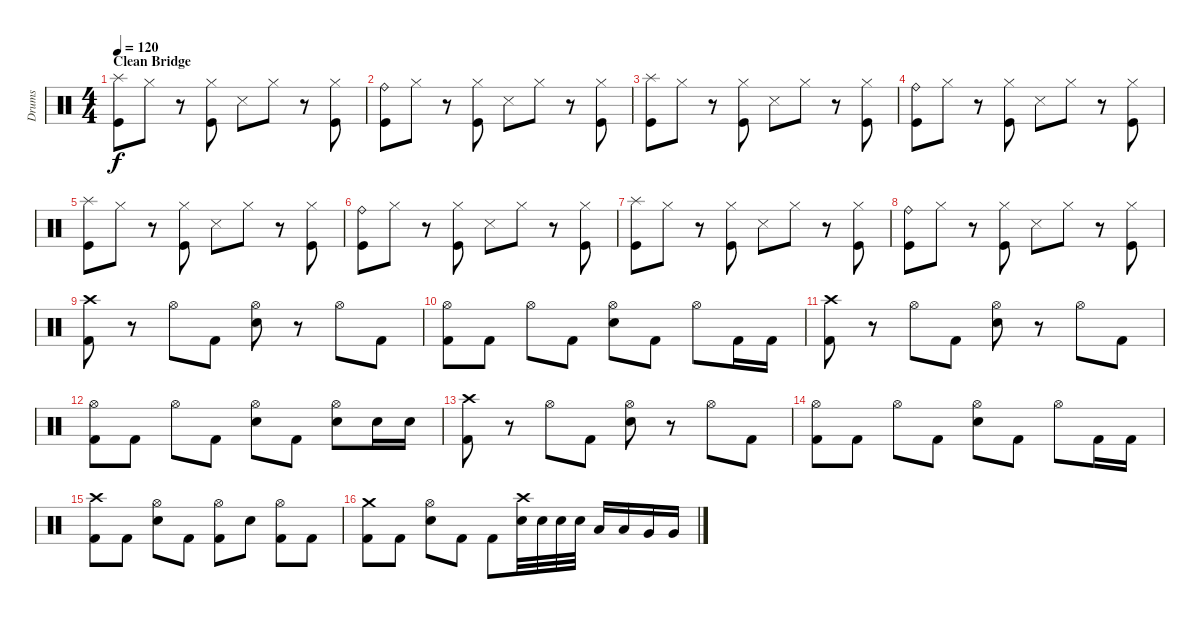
\track ("Drums" "Drums") {instrument percussion}
\staff {score}
\articulation defaults
\ts (4 4)
\section ("" "Clean Bridge")
\tempo 120
\clef neutral
\ks c
("Splash (hit)" "Kick (hit)").8{dy f} "Hi-Hat (closed)".8 r.8 ("Hi-Hat (closed)" "Kick (hit)").8 "Snare (side stick) 3".8 "Hi-Hat (closed)".8 r.8 ("Hi-Hat (closed)" "Kick (hit)").8 |
("Ride (bell)" "Kick (hit)").8 "Hi-Hat (closed)".8 r.8 ("Hi-Hat (closed)" "Kick (hit)").8 "Snare (side stick) 3".8 "Hi-Hat (closed)".8 r.8 ("Hi-Hat (closed)" "Kick (hit)").8 |
("Splash (hit)" "Kick (hit)").8 "Hi-Hat (closed)".8 r.8 ("Hi-Hat (closed)" "Kick (hit)").8 "Snare (side stick) 3".8 "Hi-Hat (closed)".8 r.8 ("Hi-Hat (closed)" "Kick (hit)").8 |
("Ride (bell)" "Kick (hit)").8 "Hi-Hat (closed)".8 r.8 ("Hi-Hat (closed)" "Kick (hit)").8 "Snare (side stick) 3".8 "Hi-Hat (closed)".8 r.8 ("Hi-Hat (closed)" "Kick (hit)").8 |
("Splash (hit)" "Kick (hit)").8 "Hi-Hat (closed)".8 r.8 ("Hi-Hat (closed)" "Kick (hit)").8 "Snare (side stick) 3".8 "Hi-Hat (closed)".8 r.8 ("Hi-Hat (closed)" "Kick (hit)").8 |
("Ride (bell)" "Kick (hit)").8 "Hi-Hat (closed)".8 r.8 ("Hi-Hat (closed)" "Kick (hit)").8 "Snare (side stick) 3".8 "Hi-Hat (closed)".8 r.8 ("Hi-Hat (closed)" "Kick (hit)").8 |
("Splash (hit)" "Kick (hit)").8 "Hi-Hat (closed)".8 r.8 ("Hi-Hat (closed)" "Kick (hit)").8 "Snare (side stick) 3".8 "Hi-Hat (closed)".8 r.8 ("Hi-Hat (closed)" "Kick (hit)").8 |
("Ride (bell)" "Kick (hit)").8 "Hi-Hat (closed)".8 r.8 ("Hi-Hat (closed)" "Kick (hit)").8 "Snare (side stick) 3".8 "Hi-Hat (closed)".8 r.8 ("Hi-Hat (closed)" "Kick (hit)").8 |
("Crash high (hit)" "Kick (hit) 2").8 r.8 "Hi-Hat (open)".8 "Kick (hit) 2".8 ("Hi-Hat (open)" "Snare (hit) 2").8 r.8 "Hi-Hat (open)".8 "Kick (hit) 2".8 |
("Hi-Hat (open)" "Kick (hit) 2").8 "Kick (hit) 2".8 "Hi-Hat (open)".8 "Kick (hit) 2".8 ("Hi-Hat (open)" "Snare (hit) 2").8 "Kick (hit) 2".8 "Hi-Hat (open)".8 "Kick (hit) 2".16 "Kick (hit) 2".16 |
("Crash high (hit)" "Kick (hit) 2").8 r.8 "Hi-Hat (open)".8 "Kick (hit) 2".8 ("Hi-Hat (open)" "Snare (hit) 2").8 r.8 "Hi-Hat (open)".8 "Kick (hit) 2".8 |
("Hi-Hat (open)" "Kick (hit) 2").8 "Kick (hit) 2".8 "Hi-Hat (open)".8 "Kick (hit) 2".8 ("Hi-Hat (open)" "Snare (hit) 2").8 "Kick (hit) 2".8 ("Hi-Hat (open)" "Snare (hit) 2").8 "Snare (hit) 2".16 "Snare (hit) 2".16 |
("Crash high (hit)" "Kick (hit) 2").8 r.8 "Hi-Hat (open)".8 "Kick (hit) 2".8 ("Hi-Hat (open)" "Snare (hit) 2").8 r.8 "Hi-Hat (open)".8 "Kick (hit) 2".8 |
("Hi-Hat (open)" "Kick (hit) 2").8 "Kick (hit) 2".8 "Hi-Hat (open)".8 "Kick (hit) 2".8 ("Hi-Hat (open)" "Snare (hit) 2").8 "Kick (hit) 2".8 "Hi-Hat (open)".8 "Kick (hit) 2".16 "Kick (hit) 2".16 |
("Crash high (hit)" "Kick (hit) 2").8 "Kick (hit) 2".8 ("Hi-Hat (open)" "Snare (hit) 2").8 "Kick (hit) 2".8 ("Hi-Hat (open)" "Kick (hit) 2").8 "Snare (hit) 2".8 ("Hi-Hat (open)" "Kick (hit) 2").8 "Kick (hit) 2".8 |
("Crash medium (hit)" "Kick (hit) 2").8 "Kick (hit) 2".8 ("Hi-Hat (open)" "Snare (hit) 2").8 "Kick (hit) 2".8 "Kick (hit) 2".8 ("Crash high (hit)" "Snare (hit) 2").32 "Snare (hit) 2".32 "Snare (hit) 2".32 "Snare (hit) 2".32 "Low Tom (hit)".16 "Low Tom (hit)".16 "Very Low Tom (hit)".16 "Very Low Tom (hit)".16
